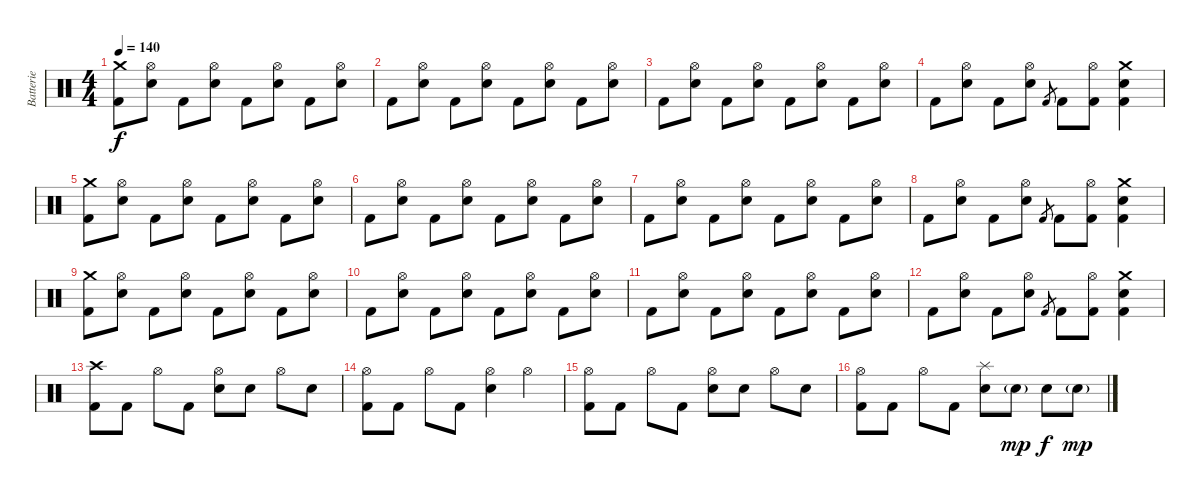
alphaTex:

\track ("Batterie" "Batterie") {instrument percussion}
\staff {score}
\articulation defaults
\ts (4 4)
\tempo 140
\clef neutral
\ks c
("Crash medium (hit)" "Kick (hit) 2").8{dy f} ("Hi-Hat (open)" "Electric Snare (hit)").8 "Kick (hit) 2".8 ("Hi-Hat (open)" "Electric Snare (hit)").8 "Kick (hit) 2".8 ("Hi-Hat (open)" "Electric Snare (hit)").8 "Kick (hit) 2".8 ("Hi-Hat (open)" "Electric Snare (hit)").8 |
"Kick (hit) 2".8 ("Hi-Hat (open)" "Electric Snare (hit)").8 "Kick (hit) 2".8 ("Hi-Hat (open)" "Electric Snare (hit)").8 "Kick (hit) 2".8 ("Hi-Hat (open)" "Electric Snare (hit)").8 "Kick (hit) 2".8 ("Hi-Hat (open)" "Electric Snare (hit)").8 |
"Kick (hit) 2".8 ("Hi-Hat (open)" "Electric Snare (hit)").8 "Kick (hit) 2".8 ("Hi-Hat (open)" "Electric Snare (hit)").8 "Kick (hit) 2".8 ("Hi-Hat (open)" "Electric Snare (hit)").8 "Kick (hit) 2".8 ("Hi-Hat (open)" "Electric Snare (hit)").8 |
"Kick (hit) 2".8 ("Hi-Hat (open)" "Electric Snare (hit)").8 "Kick (hit) 2".8 ("Hi-Hat (open)" "Electric Snare (hit)").8 "Kick (hit) 2".8{gr} "Kick (hit) 2".8 ("Hi-Hat (open)" "Kick (hit) 2").8 ("Crash medium (hit)" "Electric Snare (hit)" "Kick (hit) 2").4 |
("Crash medium (hit)" "Kick (hit) 2").8 ("Hi-Hat (open)" "Electric Snare (hit)").8 "Kick (hit) 2".8 ("Hi-Hat (open)" "Electric Snare (hit)").8 "Kick (hit) 2".8 ("Hi-Hat (open)" "Electric Snare (hit)").8 "Kick (hit) 2".8 ("Hi-Hat (open)" "Electric Snare (hit)").8 |
"Kick (hit) 2".8 ("Hi-Hat (open)" "Electric Snare (hit)").8 "Kick (hit) 2".8 ("Hi-Hat (open)" "Electric Snare (hit)").8 "Kick (hit) 2".8 ("Hi-Hat (open)" "Electric Snare (hit)").8 "Kick (hit) 2".8 ("Hi-Hat (open)" "Electric Snare (hit)").8 |
"Kick (hit) 2".8 ("Hi-Hat (open)" "Electric Snare (hit)").8 "Kick (hit) 2".8 ("Hi-Hat (open)" "Electric Snare (hit)").8 "Kick (hit) 2".8 ("Hi-Hat (open)" "Electric Snare (hit)").8 "Kick (hit) 2".8 ("Hi-Hat (open)" "Electric Snare (hit)").8 |
"Kick (hit) 2".8 ("Hi-Hat (open)" "Electric Snare (hit)").8 "Kick (hit) 2".8 ("Hi-Hat (open)" "Electric Snare (hit)").8 "Kick (hit) 2".8{gr} "Kick (hit) 2".8 ("Hi-Hat (open)" "Kick (hit) 2").8 ("Crash medium (hit)" "Electric Snare (hit)" "Kick (hit) 2").4 |
("Crash medium (hit)" "Kick (hit) 2").8 ("Hi-Hat (open)" "Electric Snare (hit)").8 "Kick (hit) 2".8 ("Hi-Hat (open)" "Electric Snare (hit)").8 "Kick (hit) 2".8 ("Hi-Hat (open)" "Electric Snare (hit)").8 "Kick (hit) 2".8 ("Hi-Hat (open)" "Electric Snare (hit)").8 |
"Kick (hit) 2".8 ("Hi-Hat (open)" "Electric Snare (hit)").8 "Kick (hit) 2".8 ("Hi-Hat (open)" "Electric Snare (hit)").8 "Kick (hit) 2".8 ("Hi-Hat (open)" "Electric Snare (hit)").8 "Kick (hit) 2".8 ("Hi-Hat (open)" "Electric Snare (hit)").8 |
"Kick (hit) 2".8 ("Hi-Hat (open)" "Electric Snare (hit)").8 "Kick (hit) 2".8 ("Hi-Hat (open)" "Electric Snare (hit)").8 "Kick (hit) 2".8 ("Hi-Hat (open)" "Electric Snare (hit)").8 "Kick (hit) 2".8 ("Hi-Hat (open)" "Electric Snare (hit)").8 |
"Kick (hit) 2".8 ("Hi-Hat (open)" "Electric Snare (hit)").8 "Kick (hit) 2".8 ("Hi-Hat (open)" "Electric Snare (hit)").8 "Kick (hit) 2".8{gr} "Kick (hit) 2".8 ("Hi-Hat (open)" "Kick (hit) 2").8 ("Crash medium (hit)" "Electric Snare (hit)" "Kick (hit) 2").4 |
("Crash high (hit)" "Kick (hit) 2").8 "Kick (hit) 2".8 "Hi-Hat (open)".8 "Kick (hit) 2".8 ("Hi-Hat (open)" "Electric Snare (hit)").8 "Electric Snare (hit)".8 "Hi-Hat (open)".8 "Electric Snare (hit)".8 |
("Hi-Hat (open)" "Kick (hit) 2").8 "Kick (hit) 2".8 "Hi-Hat (open)".8 "Kick (hit) 2".8 ("Hi-Hat (open)" "Electric Snare (hit)").4 "Hi-Hat (open)".4 |
("Hi-Hat (open)" "Kick (hit) 2").8 "Kick (hit) 2".8 "Hi-Hat (open)".8 "Kick (hit) 2".8 ("Hi-Hat (open)" "Electric Snare (hit)").8 "Electric Snare (hit)".8 "Hi-Hat (open)".8 "Electric Snare (hit)".8 |
("Hi-Hat (open)" "Kick (hit) 2").8 "Kick (hit) 2".8 "Hi-Hat (open)".8 "Kick (hit) 2".8 ("Splash (hit)" "Electric Snare (hit)").8 "Electric Snare (hit)"{g}.8{dy mp} "Electric Snare (hit)".8{dy f} "Electric Snare (hit)"{g}.8{dy mp}
